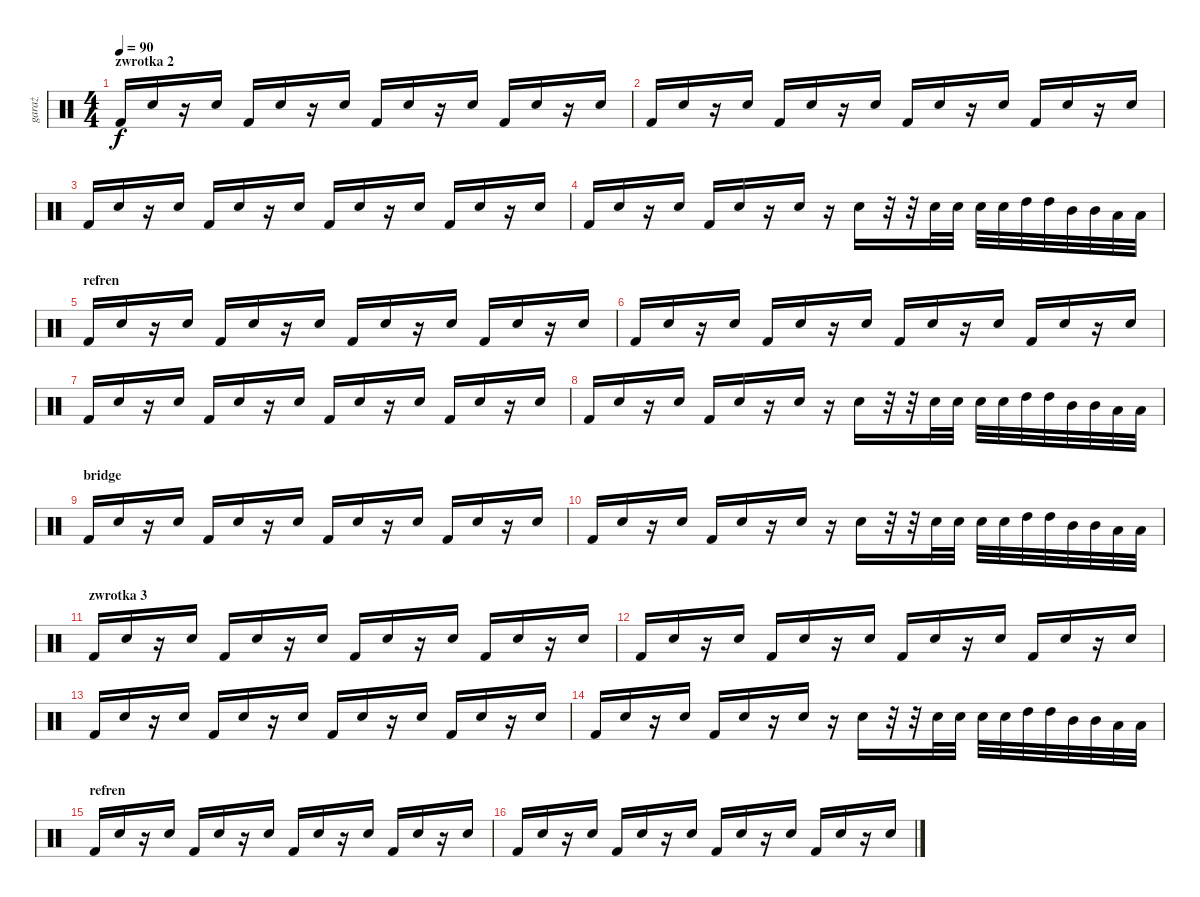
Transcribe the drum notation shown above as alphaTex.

\track ("garaż" "garaż") {instrument percussion}
\staff {score}
\articulation defaults
\ts (4 4)
\section ("" "zwrotka 2")
\tempo 90
\clef neutral
\ks c "Kick (hit) 2".16{dy f} "Snare (hit) 2".16
r.16 "Snare (hit) 2".16 "Kick (hit) 2".16 "Snare (hit) 2".16 r.16 "Snare (hit) 2".16 "Kick (hit) 2".16 "Snare (hit) 2".16 r.16 "Snare (hit) 2".16 "Kick (hit) 2".16 "Snare (hit) 2".16 r.16 "Snare (hit) 2".16 |
"Kick (hit) 2".16 "Snare (hit) 2".16 r.16 "Snare (hit) 2".16 "Kick (hit) 2".16 "Snare (hit) 2".16 r.16 "Snare (hit) 2".16 "Kick (hit) 2".16 "Snare (hit) 2".16 r.16 "Snare (hit) 2".16 "Kick (hit) 2".16 "Snare (hit) 2".16 r.16 "Snare (hit) 2".16 |
"Kick (hit) 2".16 "Snare (hit) 2".16 r.16 "Snare (hit) 2".16 "Kick (hit) 2".16 "Snare (hit) 2".16 r.16 "Snare (hit) 2".16 "Kick (hit) 2".16 "Snare (hit) 2".16 r.16 "Snare (hit) 2".16 "Kick (hit) 2".16 "Snare (hit) 2".16 r.16 "Snare (hit) 2".16 |
"Kick (hit) 2".16 "Snare (hit) 2".16 r.16 "Snare (hit) 2".16 "Kick (hit) 2".16 "Snare (hit) 2".16 r.16 "Snare (hit) 2".16 r.16 "Snare (hit) 2".16 r.32 r.32 "Snare (hit) 2".32 "Snare (hit) 2".32 "Snare (hit) 2".32 "Snare (hit) 2".32 "High Tom (hit)".32 "High Tom (hit)".32 "Mid Tom (hit)".32 "Mid Tom (hit)".32 "Low Tom (hit)".32 "Low Tom (hit)".32 |
\section ("" "refren")
"Kick (hit) 2".16 "Snare (hit) 2".16 r.16 "Snare (hit) 2".16 "Kick (hit) 2".16 "Snare (hit) 2".16 r.16 "Snare (hit) 2".16 "Kick (hit) 2".16 "Snare (hit) 2".16 r.16 "Snare (hit) 2".16 "Kick (hit) 2".16 "Snare (hit) 2".16 r.16 "Snare (hit) 2".16 |
"Kick (hit) 2".16 "Snare (hit) 2".16 r.16 "Snare (hit) 2".16 "Kick (hit) 2".16 "Snare (hit) 2".16 r.16 "Snare (hit) 2".16 "Kick (hit) 2".16 "Snare (hit) 2".16 r.16 "Snare (hit) 2".16 "Kick (hit) 2".16 "Snare (hit) 2".16 r.16 "Snare (hit) 2".16 |
"Kick (hit) 2".16 "Snare (hit) 2".16 r.16 "Snare (hit) 2".16 "Kick (hit) 2".16 "Snare (hit) 2".16 r.16 "Snare (hit) 2".16 "Kick (hit) 2".16 "Snare (hit) 2".16 r.16 "Snare (hit) 2".16 "Kick (hit) 2".16 "Snare (hit) 2".16 r.16 "Snare (hit) 2".16 |
"Kick (hit) 2".16 "Snare (hit) 2".16 r.16 "Snare (hit) 2".16 "Kick (hit) 2".16 "Snare (hit) 2".16 r.16 "Snare (hit) 2".16 r.16 "Snare (hit) 2".16 r.32 r.32 "Snare (hit) 2".32 "Snare (hit) 2".32 "Snare (hit) 2".32 "Snare (hit) 2".32 "High Tom (hit)".32 "High Tom (hit)".32 "Mid Tom (hit)".32 "Mid Tom (hit)".32 "Low Tom (hit)".32 "Low Tom (hit)".32 |
\section ("" "bridge")
"Kick (hit) 2".16 "Snare (hit) 2".16 r.16 "Snare (hit) 2".16 "Kick (hit) 2".16 "Snare (hit) 2".16 r.16 "Snare (hit) 2".16 "Kick (hit) 2".16 "Snare (hit) 2".16 r.16 "Snare (hit) 2".16 "Kick (hit) 2".16 "Snare (hit) 2".16 r.16 "Snare (hit) 2".16 |
"Kick (hit) 2".16 "Snare (hit) 2".16 r.16 "Snare (hit) 2".16 "Kick (hit) 2".16 "Snare (hit) 2".16 r.16 "Snare (hit) 2".16 r.16 "Snare (hit) 2".16 r.32 r.32 "Snare (hit) 2".32 "Snare (hit) 2".32 "Snare (hit) 2".32 "Snare (hit) 2".32 "High Tom (hit)".32 "High Tom (hit)".32 "Mid Tom (hit)".32 "Mid Tom (hit)".32 "Low Tom (hit)".32 "Low Tom (hit)".32 |
\section ("" "zwrotka 3")
"Kick (hit) 2".16 "Snare (hit) 2".16 r.16 "Snare (hit) 2".16 "Kick (hit) 2".16 "Snare (hit) 2".16 r.16 "Snare (hit) 2".16 "Kick (hit) 2".16 "Snare (hit) 2".16 r.16 "Snare (hit) 2".16 "Kick (hit) 2".16 "Snare (hit) 2".16 r.16 "Snare (hit) 2".16 |
"Kick (hit) 2".16 "Snare (hit) 2".16 r.16 "Snare (hit) 2".16 "Kick (hit) 2".16 "Snare (hit) 2".16 r.16 "Snare (hit) 2".16 "Kick (hit) 2".16 "Snare (hit) 2".16 r.16 "Snare (hit) 2".16 "Kick (hit) 2".16 "Snare (hit) 2".16 r.16 "Snare (hit) 2".16 |
"Kick (hit) 2".16 "Snare (hit) 2".16 r.16 "Snare (hit) 2".16 "Kick (hit) 2".16 "Snare (hit) 2".16 r.16 "Snare (hit) 2".16 "Kick (hit) 2".16 "Snare (hit) 2".16 r.16 "Snare (hit) 2".16 "Kick (hit) 2".16 "Snare (hit) 2".16 r.16 "Snare (hit) 2".16 |
"Kick (hit) 2".16 "Snare (hit) 2".16 r.16 "Snare (hit) 2".16 "Kick (hit) 2".16 "Snare (hit) 2".16 r.16 "Snare (hit) 2".16 r.16 "Snare (hit) 2".16 r.32 r.32 "Snare (hit) 2".32 "Snare (hit) 2".32 "Snare (hit) 2".32 "Snare (hit) 2".32 "High Tom (hit)".32 "High Tom (hit)".32 "Mid Tom (hit)".32 "Mid Tom (hit)".32 "Low Tom (hit)".32 "Low Tom (hit)".32 |
\section ("" "refren")
"Kick (hit) 2".16 "Snare (hit) 2".16 r.16 "Snare (hit) 2".16 "Kick (hit) 2".16 "Snare (hit) 2".16 r.16 "Snare (hit) 2".16 "Kick (hit) 2".16 "Snare (hit) 2".16 r.16 "Snare (hit) 2".16 "Kick (hit) 2".16 "Snare (hit) 2".16 r.16 "Snare (hit) 2".16 |
"Kick (hit) 2".16 "Snare (hit) 2".16 r.16 "Snare (hit) 2".16 "Kick (hit) 2".16 "Snare (hit) 2".16 r.16 "Snare (hit) 2".16 "Kick (hit) 2".16 "Snare (hit) 2".16 r.16 "Snare (hit) 2".16 "Kick (hit) 2".16 "Snare (hit) 2".16 r.16 "Snare (hit) 2".16
